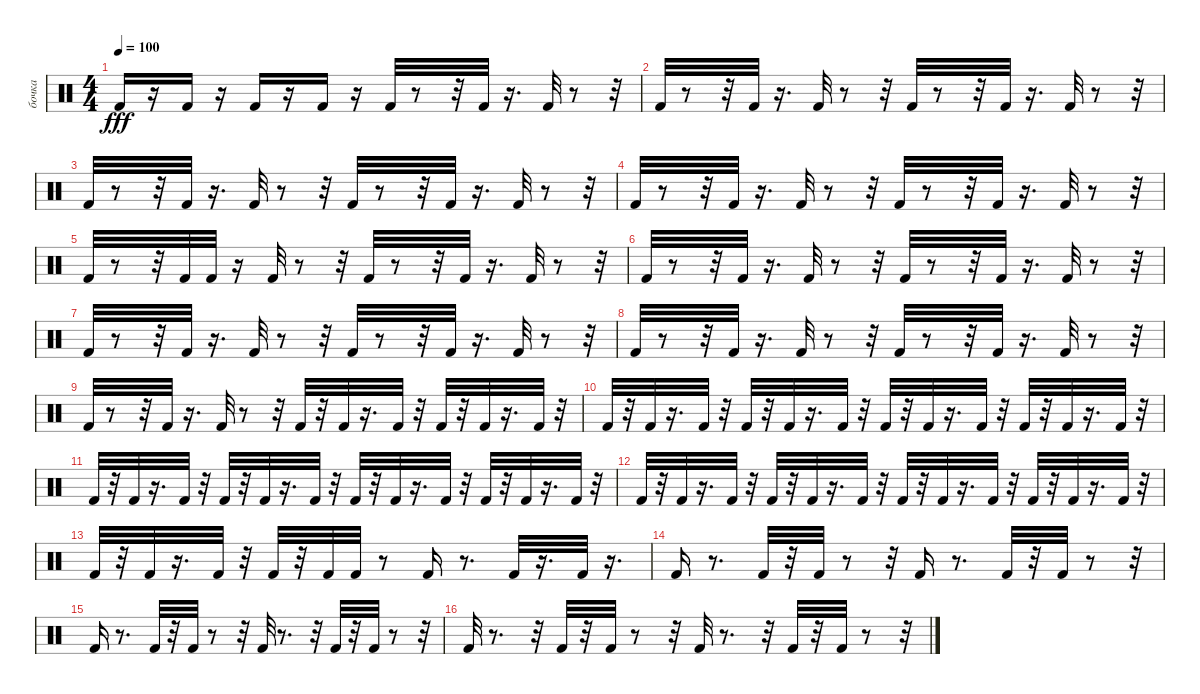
\track ("бочка" "бочка") {instrument percussion}
\staff {score}
\articulation defaults
\ts (4 4)
\tempo 100
\clef neutral
\ks c "Kick (hit) 2".16{dy fff}
r.16 "Kick (hit) 2".16 r.16 "Kick (hit) 2".16 r.16 "Kick (hit) 2".16 r.16 "Kick (hit) 2".32 r.8 r.32 "Kick (hit) 2".32 r.16{d} "Kick (hit) 2".32 r.8 r.32 |
"Kick (hit) 2".32 r.8 r.32 "Kick (hit) 2".32 r.16{d} "Kick (hit) 2".32 r.8 r.32 "Kick (hit) 2".32 r.8 r.32 "Kick (hit) 2".32 r.16{d} "Kick (hit) 2".32 r.8 r.32 |
"Kick (hit) 2".32 r.8 r.32 "Kick (hit) 2".32 r.16{d} "Kick (hit) 2".32 r.8 r.32 "Kick (hit) 2".32 r.8 r.32 "Kick (hit) 2".32 r.16{d} "Kick (hit) 2".32 r.8 r.32 |
"Kick (hit) 2".32 r.8 r.32 "Kick (hit) 2".32 r.16{d} "Kick (hit) 2".32 r.8 r.32 "Kick (hit) 2".32 r.8 r.32 "Kick (hit) 2".32 r.16{d} "Kick (hit) 2".32 r.8 r.32 |
"Kick (hit) 2".32 r.8 r.32 "Kick (hit) 2".32 "Kick (hit) 2".32 r.16 "Kick (hit) 2".32 r.8 r.32 "Kick (hit) 2".32 r.8 r.32 "Kick (hit) 2".32 r.16{d} "Kick (hit) 2".32 r.8 r.32 |
"Kick (hit) 2".32 r.8 r.32 "Kick (hit) 2".32 r.16{d} "Kick (hit) 2".32 r.8 r.32 "Kick (hit) 2".32 r.8 r.32 "Kick (hit) 2".32 r.16{d} "Kick (hit) 2".32 r.8 r.32 |
"Kick (hit) 2".32 r.8 r.32 "Kick (hit) 2".32 r.16{d} "Kick (hit) 2".32 r.8 r.32 "Kick (hit) 2".32 r.8 r.32 "Kick (hit) 2".32 r.16{d} "Kick (hit) 2".32 r.8 r.32 |
"Kick (hit) 2".32 r.8 r.32 "Kick (hit) 2".32 r.16{d} "Kick (hit) 2".32 r.8 r.32 "Kick (hit) 2".32 r.8 r.32 "Kick (hit) 2".32 r.16{d} "Kick (hit) 2".32 r.8 r.32 |
"Kick (hit) 2".32 r.8 r.32 "Kick (hit) 2".32 r.16{d} "Kick (hit) 2".32 r.8 r.32 "Kick (hit) 2".32 r.32 "Kick (hit) 2".32 r.16{d} "Kick (hit) 2".32 r.32 "Kick (hit) 2".32 r.32 "Kick (hit) 2".32 r.16{d} "Kick (hit) 2".32 r.32 |
"Kick (hit) 2".32 r.32 "Kick (hit) 2".32 r.16{d} "Kick (hit) 2".32 r.32 "Kick (hit) 2".32 r.32 "Kick (hit) 2".32 r.16{d} "Kick (hit) 2".32 r.32 "Kick (hit) 2".32 r.32 "Kick (hit) 2".32 r.16{d} "Kick (hit) 2".32 r.32 "Kick (hit) 2".32 r.32 "Kick (hit) 2".32 r.16{d} "Kick (hit) 2".32 r.32 |
"Kick (hit) 2".32 r.32 "Kick (hit) 2".32 r.16{d} "Kick (hit) 2".32 r.32 "Kick (hit) 2".32 r.32 "Kick (hit) 2".32 r.16{d} "Kick (hit) 2".32 r.32 "Kick (hit) 2".32 r.32 "Kick (hit) 2".32 r.16{d} "Kick (hit) 2".32 r.32 "Kick (hit) 2".32 r.32 "Kick (hit) 2".32 r.16{d} "Kick (hit) 2".32 r.32 |
"Kick (hit) 2".32 r.32 "Kick (hit) 2".32 r.16{d} "Kick (hit) 2".32 r.32 "Kick (hit) 2".32 r.32 "Kick (hit) 2".32 r.16{d} "Kick (hit) 2".32 r.32 "Kick (hit) 2".32 r.32 "Kick (hit) 2".32 r.16{d} "Kick (hit) 2".32 r.32 "Kick (hit) 2".32 r.32 "Kick (hit) 2".32 r.16{d} "Kick (hit) 2".32 r.32 |
"Kick (hit) 2".32 r.32 "Kick (hit) 2".32 r.16{d} "Kick (hit) 2".32 r.32 "Kick (hit) 2".32 r.32 "Kick (hit) 2".32 "Kick (hit) 2".32 r.8 "Kick (hit) 2".16 r.8{d} "Kick (hit) 2".32 r.16{d} "Kick (hit) 2".32 r.16{d} |
"Kick (hit) 2".16 r.8{d} "Kick (hit) 2".32 r.32 "Kick (hit) 2".32 r.8 r.32 "Kick (hit) 2".16 r.8{d} "Kick (hit) 2".32 r.32 "Kick (hit) 2".32 r.8 r.32 |
"Kick (hit) 2".16 r.8{d} "Kick (hit) 2".32 r.32 "Kick (hit) 2".32 r.8 r.32 "Kick (hit) 2".32 r.8{d} r.32 "Kick (hit) 2".32 r.32 "Kick (hit) 2".32 r.8 r.32 |
"Kick (hit) 2".32 r.8{d} r.32 "Kick (hit) 2".32 r.32 "Kick (hit) 2".32 r.8 r.32 "Kick (hit) 2".32 r.8{d} r.32 "Kick (hit) 2".32 r.32 "Kick (hit) 2".32 r.8 r.32
